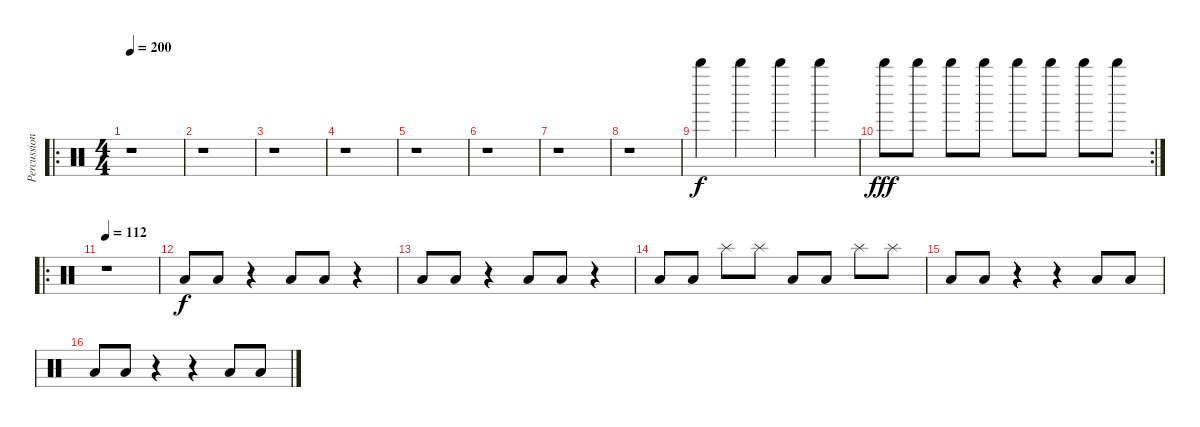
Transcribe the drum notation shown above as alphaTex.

\track ("Percussion" "Percussion") {instrument percussion}
\staff {score}
\articulation defaults
\ro
\ts (4 4)
\tempo 200
\clef neutral
\ks c
r.1{dy f} |
r.1 |
r.1 |
r.1 |
r.1 |
r.1 |
r.1 |
r.1 |
"Whistle high (hit)".4 "Whistle high (hit)".4 "Whistle high (hit)".4 "Whistle high (hit)".4 |
\rc 2 "Whistle high (hit)".8{dy fff} "Whistle high (hit)".8 "Whistle high (hit)".8 "Whistle high (hit)".8 "Whistle high (hit)".8 "Whistle high (hit)".8 "Whistle high (hit)".8 "Whistle high (hit)".8
|
\ro
\tempo 112
r.1 |
"Low Floor Tom (hit)".8{dy f} "Low Floor Tom (hit)".8 r.4 "Low Floor Tom (hit)".8 "Low Floor Tom (hit)".8 r.4 |
"Low Floor Tom (hit)".8 "Low Floor Tom (hit)".8 r.4 "Low Floor Tom (hit)".8 "Low Floor Tom (hit)".8 r.4 |
"Low Floor Tom (hit)".8 "Low Floor Tom (hit)".8 "Splash (hit)".8 "Splash (hit)".8 "Low Floor Tom (hit)".8 "Low Floor Tom (hit)".8 "Splash (hit)".8 "Splash (hit)".8 |
"Low Floor Tom (hit)".8 "Low Floor Tom (hit)".8 r.4 r.4 "Low Floor Tom (hit)".8 "Low Floor Tom (hit)".8 |
"Low Floor Tom (hit)".8 "Low Floor Tom (hit)".8 r.4 r.4 "Low Floor Tom (hit)".8 "Low Floor Tom (hit)".8
